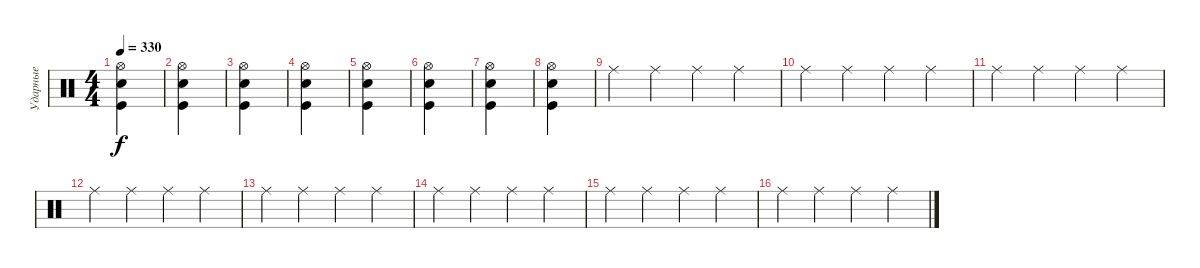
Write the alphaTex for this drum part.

\track ("Ударные" "Ударные") {instrument percussion}
\staff {score}
\articulation defaults
\ts (4 4)
\tempo 330
\clef neutral
\ks c
("Hi-Hat (open)" "Kick (hit)" "Snare (hit) 2").4{dy f} |
("Hi-Hat (open)" "Kick (hit)" "Snare (hit) 2").4 |
("Hi-Hat (open)" "Kick (hit)" "Snare (hit) 2").4 |
("Hi-Hat (open)" "Kick (hit)" "Snare (hit) 2").4 |
("Hi-Hat (open)" "Kick (hit)" "Snare (hit) 2").4 |
("Hi-Hat (open)" "Kick (hit)" "Snare (hit) 2").4 |
("Hi-Hat (open)" "Kick (hit)" "Snare (hit) 2").4 |
("Hi-Hat (open)" "Kick (hit)" "Snare (hit) 2").4 |
"Ride (middle)".4 "Ride (middle)".4 "Ride (middle)".4 "Ride (middle)".4 |
"Ride (middle)".4 "Ride (middle)".4 "Ride (middle)".4 "Ride (middle)".4 |
"Ride (middle)".4 "Ride (middle)".4 "Ride (middle)".4 "Ride (middle)".4 |
"Ride (middle)".4 "Ride (middle)".4 "Ride (middle)".4 "Ride (middle)".4 |
"Ride (middle)".4 "Ride (middle)".4 "Ride (middle)".4 "Ride (middle)".4 |
"Ride (middle)".4 "Ride (middle)".4 "Ride (middle)".4 "Ride (middle)".4 |
"Ride (middle)".4 "Ride (middle)".4 "Ride (middle)".4 "Ride (middle)".4 |
"Ride (middle)".4 "Ride (middle)".4 "Ride (middle)".4 "Ride (middle)".4
